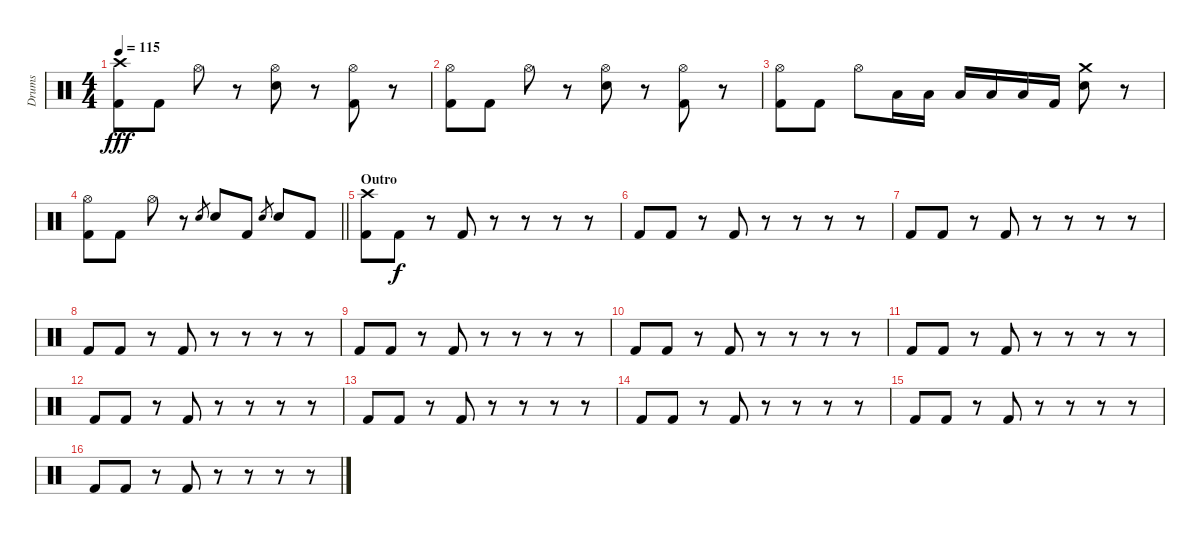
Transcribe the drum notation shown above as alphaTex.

\track ("Drums" "Drums") {instrument percussion}
\staff {score}
\articulation defaults
\ts (4 4)
\tempo 115
\clef neutral
\ks c
("Crash high (hit)" "Kick (hit) 2").8{dy fff} "Kick (hit) 2".8 "Hi-Hat (open)".8 r.8 ("Hi-Hat (open)" "Electric Snare (hit)").8 r.8 ("Hi-Hat (open)" "Kick (hit) 2").8 r.8 |
("Hi-Hat (open)" "Kick (hit) 2").8 "Kick (hit) 2".8 "Hi-Hat (open)".8 r.8 ("Hi-Hat (open)" "Electric Snare (hit)").8 r.8 ("Hi-Hat (open)" "Kick (hit) 2").8 r.8 |
("Hi-Hat (open)" "Kick (hit) 2").8 "Kick (hit) 2".8 "Hi-Hat (open)".8 "Low Tom (hit)".16 "Low Tom (hit)".16 "Low Tom (hit)".16 "Low Tom (hit)".16 "Low Tom (hit)".16 "Kick (hit) 2".16 ("Crash medium (hit)" "Electric Snare (hit)").8 r.8 |
\barLineRight lightlight
("Hi-Hat (open)" "Kick (hit) 2").8 "Kick (hit) 2".8 "Hi-Hat (open)".8 r.8 "Electric Snare (hit)".8{gr} "Electric Snare (hit)".8 "Kick (hit) 2".8 "Electric Snare (hit)".8{gr} "Electric Snare (hit)".8 "Kick (hit) 2".8 |
\section ("" "Outro")
("Crash high (hit)" "Kick (hit) 2").8 "Kick (hit) 2".8{dy f} r.8 "Kick (hit) 2".8 r.8 r.8 r.8 r.8 |
"Kick (hit) 2".8 "Kick (hit) 2".8 r.8 "Kick (hit) 2".8 r.8 r.8 r.8 r.8 |
"Kick (hit) 2".8 "Kick (hit) 2".8 r.8 "Kick (hit) 2".8 r.8 r.8 r.8 r.8 |
"Kick (hit) 2".8 "Kick (hit) 2".8 r.8 "Kick (hit) 2".8 r.8 r.8 r.8 r.8 |
"Kick (hit) 2".8 "Kick (hit) 2".8 r.8 "Kick (hit) 2".8 r.8 r.8 r.8 r.8 |
"Kick (hit) 2".8 "Kick (hit) 2".8 r.8 "Kick (hit) 2".8 r.8 r.8 r.8 r.8 |
"Kick (hit) 2".8 "Kick (hit) 2".8 r.8 "Kick (hit) 2".8 r.8 r.8 r.8 r.8 |
"Kick (hit) 2".8 "Kick (hit) 2".8 r.8 "Kick (hit) 2".8 r.8 r.8 r.8 r.8 |
"Kick (hit) 2".8 "Kick (hit) 2".8 r.8 "Kick (hit) 2".8 r.8 r.8 r.8 r.8 |
"Kick (hit) 2".8{volume 8} "Kick (hit) 2".8 r.8 "Kick (hit) 2".8 r.8 r.8 r.8 r.8 |
"Kick (hit) 2".8 "Kick (hit) 2".8 r.8 "Kick (hit) 2".8 r.8 r.8 r.8 r.8 |
"Kick (hit) 2".8 "Kick (hit) 2".8 r.8 "Kick (hit) 2".8 r.8 r.8 r.8 r.8
